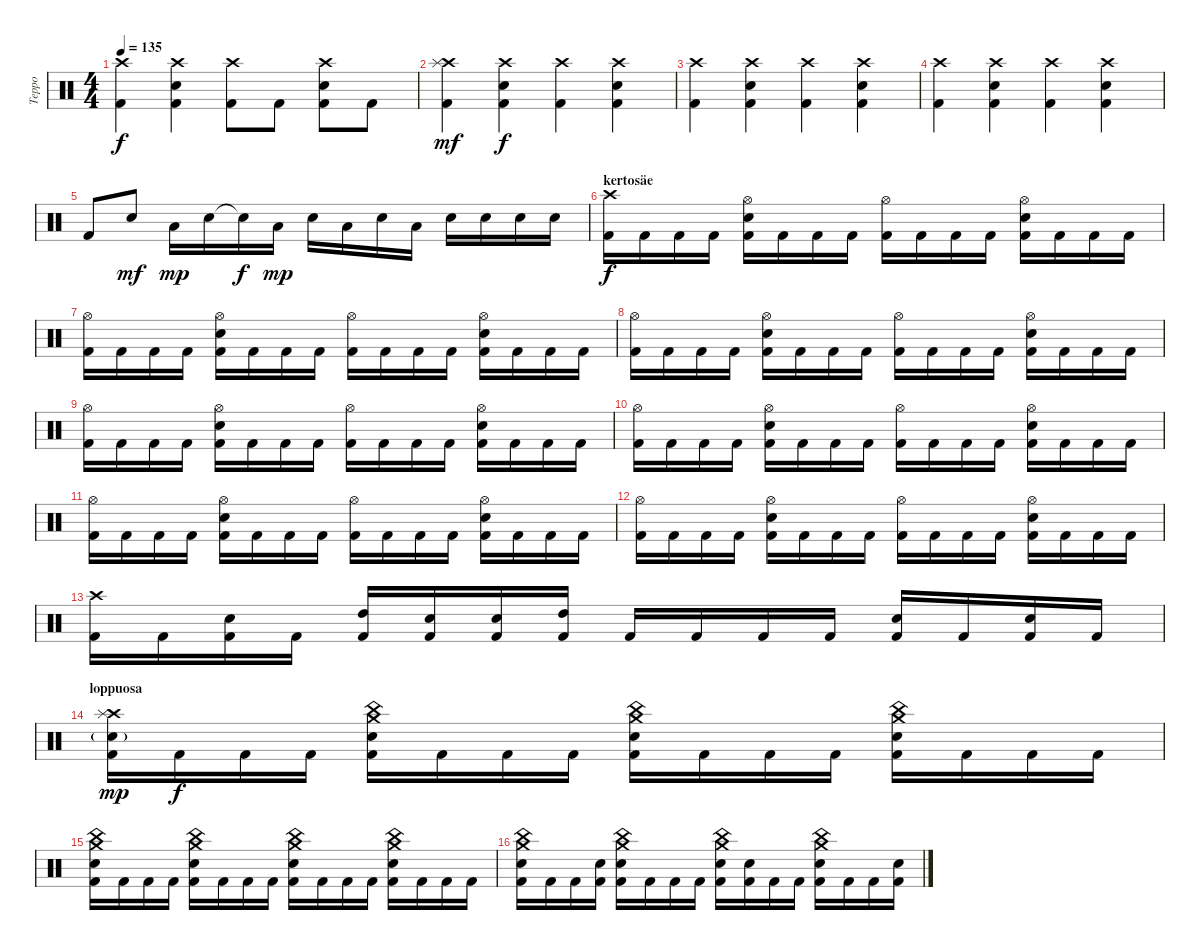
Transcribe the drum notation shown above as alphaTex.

\track ("Teppo" "Teppo") {instrument percussion}
\staff {score}
\articulation defaults
\ts (4 4)
\tempo 135
\clef neutral
\ks c
("Crash high (hit)" "Kick (hit) 2").4{dy f} ("Crash high (hit)" "Electric Snare (hit)" "Kick (hit) 2").4 ("Crash high (hit)" "Kick (hit) 2").8 "Kick (hit) 2".8 ("Crash high (hit)" "Electric Snare (hit)" "Kick (hit) 2").8 "Kick (hit) 2".8 |
("Crash high (hit)" "Splash (hit)" "Kick (hit) 2").4{dy mf} ("Crash high (hit)" "Electric Snare (hit)" "Kick (hit) 2").4{dy f} ("Crash high (hit)" "Kick (hit) 2").4 ("Crash high (hit)" "Electric Snare (hit)" "Kick (hit) 2").4 |
("Crash high (hit)" "Kick (hit) 2").4 ("Crash high (hit)" "Electric Snare (hit)" "Kick (hit) 2").4 ("Crash high (hit)" "Kick (hit) 2").4 ("Crash high (hit)" "Electric Snare (hit)" "Kick (hit) 2").4 |
("Crash high (hit)" "Kick (hit) 2").4 ("Crash high (hit)" "Electric Snare (hit)" "Kick (hit) 2").4 ("Crash high (hit)" "Kick (hit) 2").4 ("Crash high (hit)" "Electric Snare (hit)" "Kick (hit) 2").4 |
"Kick (hit) 2".8 "Electric Snare (hit)".8{dy mf} "Low Tom (hit)".16{dy mp} "Electric Snare (hit)".16 "Electric Snare (hit)"{t}.16{dy f} "Low Tom (hit)".16{dy mp} "Electric Snare (hit)".16 "Low Tom (hit)".16 "Electric Snare (hit)".16 "Low Tom (hit)".16 "Electric Snare (hit)".16 "Electric Snare (hit)".16 "Electric Snare (hit)".16 "Electric Snare (hit)".16 |
\section ("" "kertosäe")
("Crash high (hit)" "Kick (hit) 2").16{dy f} "Kick (hit) 2".16 "Kick (hit) 2".16 "Kick (hit) 2".16 ("Hi-Hat (open)" "Electric Snare (hit)" "Kick (hit) 2").16 "Kick (hit) 2".16 "Kick (hit) 2".16 "Kick (hit) 2".16 ("Hi-Hat (open)" "Kick (hit) 2").16 "Kick (hit) 2".16 "Kick (hit) 2".16 "Kick (hit) 2".16 ("Hi-Hat (open)" "Electric Snare (hit)" "Kick (hit) 2").16 "Kick (hit) 2".16 "Kick (hit) 2".16 "Kick (hit) 2".16 |
("Hi-Hat (open)" "Kick (hit) 2").16 "Kick (hit) 2".16 "Kick (hit) 2".16 "Kick (hit) 2".16 ("Hi-Hat (open)" "Electric Snare (hit)" "Kick (hit) 2").16 "Kick (hit) 2".16 "Kick (hit) 2".16 "Kick (hit) 2".16 ("Hi-Hat (open)" "Kick (hit) 2").16 "Kick (hit) 2".16 "Kick (hit) 2".16 "Kick (hit) 2".16 ("Hi-Hat (open)" "Electric Snare (hit)" "Kick (hit) 2").16 "Kick (hit) 2".16 "Kick (hit) 2".16 "Kick (hit) 2".16 |
("Hi-Hat (open)" "Kick (hit) 2").16 "Kick (hit) 2".16 "Kick (hit) 2".16 "Kick (hit) 2".16 ("Hi-Hat (open)" "Electric Snare (hit)" "Kick (hit) 2").16 "Kick (hit) 2".16 "Kick (hit) 2".16 "Kick (hit) 2".16 ("Hi-Hat (open)" "Kick (hit) 2").16 "Kick (hit) 2".16 "Kick (hit) 2".16 "Kick (hit) 2".16 ("Hi-Hat (open)" "Electric Snare (hit)" "Kick (hit) 2").16 "Kick (hit) 2".16 "Kick (hit) 2".16 "Kick (hit) 2".16 |
("Hi-Hat (open)" "Kick (hit) 2").16 "Kick (hit) 2".16 "Kick (hit) 2".16 "Kick (hit) 2".16 ("Hi-Hat (open)" "Electric Snare (hit)" "Kick (hit) 2").16 "Kick (hit) 2".16 "Kick (hit) 2".16 "Kick (hit) 2".16 ("Hi-Hat (open)" "Kick (hit) 2").16 "Kick (hit) 2".16 "Kick (hit) 2".16 "Kick (hit) 2".16 ("Hi-Hat (open)" "Electric Snare (hit)" "Kick (hit) 2").16 "Kick (hit) 2".16 "Kick (hit) 2".16 "Kick (hit) 2".16 |
("Hi-Hat (open)" "Kick (hit) 2").16 "Kick (hit) 2".16 "Kick (hit) 2".16 "Kick (hit) 2".16 ("Hi-Hat (open)" "Electric Snare (hit)" "Kick (hit) 2").16 "Kick (hit) 2".16 "Kick (hit) 2".16 "Kick (hit) 2".16 ("Hi-Hat (open)" "Kick (hit) 2").16 "Kick (hit) 2".16 "Kick (hit) 2".16 "Kick (hit) 2".16 ("Hi-Hat (open)" "Electric Snare (hit)" "Kick (hit) 2").16 "Kick (hit) 2".16 "Kick (hit) 2".16 "Kick (hit) 2".16 |
("Hi-Hat (open)" "Kick (hit) 2").16 "Kick (hit) 2".16 "Kick (hit) 2".16 "Kick (hit) 2".16 ("Hi-Hat (open)" "Electric Snare (hit)" "Kick (hit) 2").16 "Kick (hit) 2".16 "Kick (hit) 2".16 "Kick (hit) 2".16 ("Hi-Hat (open)" "Kick (hit) 2").16 "Kick (hit) 2".16 "Kick (hit) 2".16 "Kick (hit) 2".16 ("Hi-Hat (open)" "Electric Snare (hit)" "Kick (hit) 2").16 "Kick (hit) 2".16 "Kick (hit) 2".16 "Kick (hit) 2".16 |
("Hi-Hat (open)" "Kick (hit) 2").16 "Kick (hit) 2".16 "Kick (hit) 2".16 "Kick (hit) 2".16 ("Hi-Hat (open)" "Electric Snare (hit)" "Kick (hit) 2").16 "Kick (hit) 2".16 "Kick (hit) 2".16 "Kick (hit) 2".16 ("Hi-Hat (open)" "Kick (hit) 2").16 "Kick (hit) 2".16 "Kick (hit) 2".16 "Kick (hit) 2".16 ("Hi-Hat (open)" "Electric Snare (hit)" "Kick (hit) 2").16 "Kick (hit) 2".16 "Kick (hit) 2".16 "Kick (hit) 2".16 |
("Crash high (hit)" "Kick (hit) 2").16{txt " "} "Kick (hit) 2".16 ("Electric Snare (hit)" "Kick (hit) 2").16 "Kick (hit) 2".16 ("High Tom (hit)" "Kick (hit) 2").16 ("Electric Snare (hit)" "Kick (hit) 2").16 ("Electric Snare (hit)" "Kick (hit) 2").16 ("High Tom (hit)" "Kick (hit) 2").16 "Kick (hit) 2".16 "Kick (hit) 2".16 "Kick (hit) 2".16 "Kick (hit) 2".16 ("Electric Snare (hit)" "Kick (hit) 2").16 "Kick (hit) 2".16 ("Electric Snare (hit)" "Kick (hit) 2").16 "Kick (hit) 2".16 |
\section ("" "loppuosa")
("Crash high (hit)" "Splash (hit)" "Electric Snare (hit)"{g} "Kick (hit) 2").16{dy mp} "Kick (hit) 2".16{dy f} "Kick (hit) 2".16 "Kick (hit) 2".16 ("Crash medium (hit)" "China (hit)" "Electric Snare (hit)" "Kick (hit) 2").16 "Kick (hit) 2".16 "Kick (hit) 2".16 "Kick (hit) 2".16 ("Crash medium (hit)" "China (hit)" "Electric Snare (hit)" "Kick (hit) 2").16 "Kick (hit) 2".16 "Kick (hit) 2".16 "Kick (hit) 2".16 ("Crash medium (hit)" "China (hit)" "Electric Snare (hit)" "Kick (hit) 2").16 "Kick (hit) 2".16 "Kick (hit) 2".16 "Kick (hit) 2".16 |
("Crash medium (hit)" "China (hit)" "Electric Snare (hit)" "Kick (hit) 2").16 "Kick (hit) 2".16 "Kick (hit) 2".16 "Kick (hit) 2".16 ("Crash medium (hit)" "China (hit)" "Electric Snare (hit)" "Kick (hit) 2").16 "Kick (hit) 2".16 "Kick (hit) 2".16 "Kick (hit) 2".16 ("Crash medium (hit)" "China (hit)" "Electric Snare (hit)" "Kick (hit) 2").16 "Kick (hit) 2".16 "Kick (hit) 2".16 "Kick (hit) 2".16 ("Crash medium (hit)" "China (hit)" "Electric Snare (hit)" "Kick (hit) 2").16 "Kick (hit) 2".16 "Kick (hit) 2".16 "Kick (hit) 2".16 |
("Crash medium (hit)" "China (hit)" "Electric Snare (hit)" "Kick (hit) 2").16 "Kick (hit) 2".16 "Kick (hit) 2".16 ("Electric Snare (hit)" "Kick (hit) 2").16 ("Crash medium (hit)" "China (hit)" "Electric Snare (hit)" "Kick (hit) 2").16 "Kick (hit) 2".16 "Kick (hit) 2".16 "Kick (hit) 2".16 ("Crash medium (hit)" "China (hit)" "Electric Snare (hit)" "Kick (hit) 2").16 ("Electric Snare (hit)" "Kick (hit) 2").16 "Kick (hit) 2".16 "Kick (hit) 2".16 ("Crash medium (hit)" "China (hit)" "Electric Snare (hit)" "Kick (hit) 2").16 "Kick (hit) 2".16 "Kick (hit) 2".16 ("Electric Snare (hit)" "Kick (hit) 2").16
